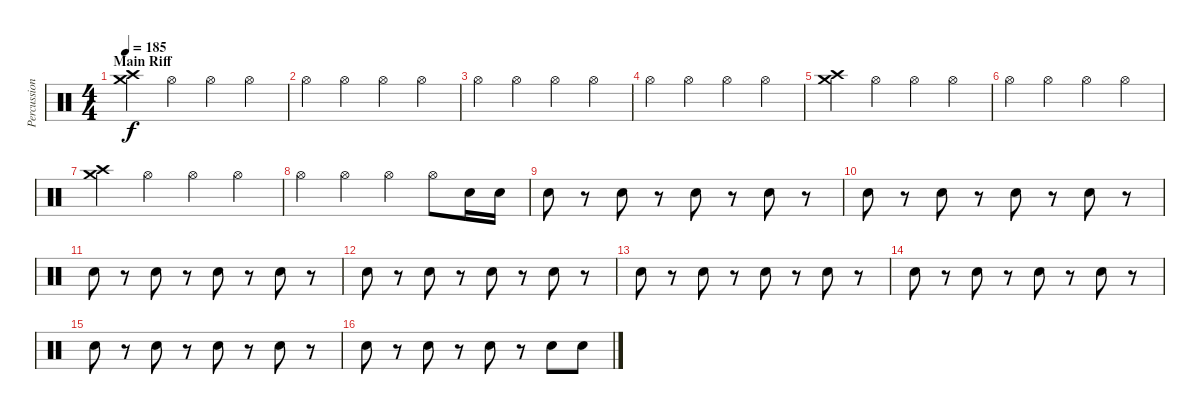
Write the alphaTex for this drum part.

\track ("Percussion" "Percussion") {instrument percussion}
\staff {score}
\articulation defaults
\ts (4 4)
\section ("" "Main Riff")
\tempo 185
\clef neutral
\ks c
("Crash high (hit)" "Crash medium (hit)").4{dy f} "Hi-Hat (open)".4 "Hi-Hat (open)".4 "Hi-Hat (open)".4 |
"Hi-Hat (open)".4 "Hi-Hat (open)".4 "Hi-Hat (open)".4 "Hi-Hat (open)".4 |
"Hi-Hat (open)".4 "Hi-Hat (open)".4 "Hi-Hat (open)".4 "Hi-Hat (open)".4 |
"Hi-Hat (open)".4 "Hi-Hat (open)".4 "Hi-Hat (open)".4 "Hi-Hat (open)".4 |
("Crash high (hit)" "Crash medium (hit)").4 "Hi-Hat (open)".4 "Hi-Hat (open)".4 "Hi-Hat (open)".4 |
"Hi-Hat (open)".4 "Hi-Hat (open)".4 "Hi-Hat (open)".4 "Hi-Hat (open)".4 |
("Crash medium (hit)" "Crash high (hit)").4 "Hi-Hat (open)".4 "Hi-Hat (open)".4 "Hi-Hat (open)".4 |
"Hi-Hat (open)".4 "Hi-Hat (open)".4 "Hi-Hat (open)".4 "Hi-Hat (open)".8 "Snare (hit) 2".16 "Snare (hit) 2".16 |
"Snare (hit) 2".8 r.8 "Snare (hit) 2".8 r.8 "Snare (hit) 2".8 r.8 "Snare (hit) 2".8 r.8 |
"Snare (hit) 2".8 r.8 "Snare (hit) 2".8 r.8 "Snare (hit) 2".8 r.8 "Snare (hit) 2".8 r.8 |
"Snare (hit) 2".8 r.8 "Snare (hit) 2".8 r.8 "Snare (hit) 2".8 r.8 "Snare (hit) 2".8 r.8 |
"Snare (hit) 2".8 r.8 "Snare (hit) 2".8 r.8 "Snare (hit) 2".8 r.8 "Snare (hit) 2".8 r.8 |
"Snare (hit) 2".8 r.8 "Snare (hit) 2".8 r.8 "Snare (hit) 2".8 r.8 "Snare (hit) 2".8 r.8 |
"Snare (hit) 2".8 r.8 "Snare (hit) 2".8 r.8 "Snare (hit) 2".8 r.8 "Snare (hit) 2".8 r.8 |
"Snare (hit) 2".8 r.8 "Snare (hit) 2".8 r.8 "Snare (hit) 2".8 r.8 "Snare (hit) 2".8 r.8 |
"Snare (hit) 2".8 r.8 "Snare (hit) 2".8 r.8 "Snare (hit) 2".8 r.8 "Snare (hit) 2".8 "Snare (hit) 2".8
